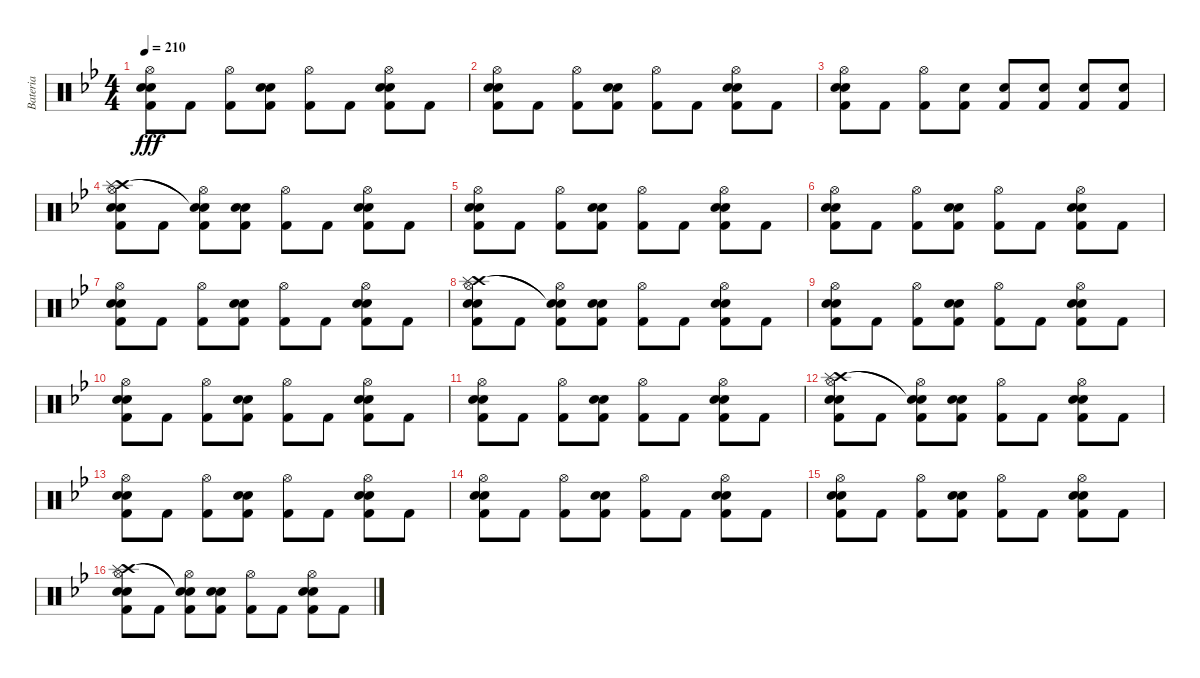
\track ("Bateria" "Bateria") {instrument percussion}
\staff {score}
\articulation defaults
\ts (4 4)
\tempo 210
\clef neutral
\ks gminor
("Hi-Hat (open)" "Snare (hit) 2" "Kick (hit) 2" "Electric Snare (hit)").8{dy fff} "Kick (hit) 2".8 ("Hi-Hat (open)" "Kick (hit) 2").8 ("Snare (hit) 2" "Kick (hit) 2" "Electric Snare (hit)").8 ("Hi-Hat (open)" "Kick (hit) 2").8 "Kick (hit) 2".8 ("Hi-Hat (open)" "Snare (hit) 2" "Kick (hit) 2" "Electric Snare (hit)").8 "Kick (hit) 2".8 |
("Hi-Hat (open)" "Snare (hit) 2" "Kick (hit) 2" "Electric Snare (hit)").8 "Kick (hit) 2".8 ("Hi-Hat (open)" "Kick (hit) 2").8 ("Snare (hit) 2" "Kick (hit) 2" "Electric Snare (hit)").8 ("Hi-Hat (open)" "Kick (hit) 2").8 "Kick (hit) 2".8 ("Hi-Hat (open)" "Snare (hit) 2" "Kick (hit) 2" "Electric Snare (hit)").8 "Kick (hit) 2".8 |
("Hi-Hat (open)" "Snare (hit) 2" "Kick (hit) 2" "Electric Snare (hit)").8 "Kick (hit) 2".8 ("Hi-Hat (open)" "Kick (hit) 2").8 ("Snare (hit) 2" "Kick (hit) 2").8 ("Snare (hit) 2" "Kick (hit) 2").8 ("Snare (hit) 2" "Kick (hit) 2").8 ("Snare (hit) 2" "Kick (hit) 2").8 ("Snare (hit) 2" "Kick (hit) 2").8 |
("Hi-Hat (open)" "Crash high (hit)" "Splash (hit)" "Snare (hit) 2" "Electric Snare (hit)" "Kick (hit) 2").8 "Kick (hit) 2".8 ("Hi-Hat (open)" "Snare (hit)"{t} "Snare (hit)"{t} "Kick (hit) 2").8 ("Snare (hit) 2" "Electric Snare (hit)" "Kick (hit) 2").8 ("Hi-Hat (open)" "Kick (hit) 2").8 "Kick (hit) 2".8 ("Hi-Hat (open)" "Snare (hit) 2" "Electric Snare (hit)" "Kick (hit) 2").8 "Kick (hit) 2".8 |
("Hi-Hat (open)" "Snare (hit) 2" "Kick (hit) 2" "Electric Snare (hit)").8 "Kick (hit) 2".8 ("Hi-Hat (open)" "Kick (hit) 2").8 ("Snare (hit) 2" "Kick (hit) 2" "Electric Snare (hit)").8 ("Hi-Hat (open)" "Kick (hit) 2").8 "Kick (hit) 2".8 ("Hi-Hat (open)" "Snare (hit) 2" "Kick (hit) 2" "Electric Snare (hit)").8 "Kick (hit) 2".8 |
("Hi-Hat (open)" "Snare (hit) 2" "Kick (hit) 2" "Electric Snare (hit)").8 "Kick (hit) 2".8 ("Hi-Hat (open)" "Kick (hit) 2").8 ("Snare (hit) 2" "Kick (hit) 2" "Electric Snare (hit)").8 ("Hi-Hat (open)" "Kick (hit) 2").8 "Kick (hit) 2".8 ("Hi-Hat (open)" "Snare (hit) 2" "Kick (hit) 2" "Electric Snare (hit)").8 "Kick (hit) 2".8 |
("Hi-Hat (open)" "Snare (hit) 2" "Kick (hit) 2" "Electric Snare (hit)").8 "Kick (hit) 2".8 ("Hi-Hat (open)" "Kick (hit) 2").8 ("Snare (hit) 2" "Kick (hit) 2" "Electric Snare (hit)").8 ("Hi-Hat (open)" "Kick (hit) 2").8 "Kick (hit) 2".8 ("Hi-Hat (open)" "Snare (hit) 2" "Kick (hit) 2" "Electric Snare (hit)").8 "Kick (hit) 2".8 |
("Hi-Hat (open)" "Crash high (hit)" "Splash (hit)" "Snare (hit) 2" "Kick (hit) 2" "Electric Snare (hit)").8 "Kick (hit) 2".8 ("Hi-Hat (open)" "Snare (hit)"{t} "Snare (hit)"{t} "Kick (hit) 2").8 ("Snare (hit) 2" "Kick (hit) 2" "Electric Snare (hit)").8 ("Hi-Hat (open)" "Kick (hit) 2").8 "Kick (hit) 2".8 ("Hi-Hat (open)" "Snare (hit) 2" "Kick (hit) 2" "Electric Snare (hit)").8 "Kick (hit) 2".8 |
("Hi-Hat (open)" "Snare (hit) 2" "Kick (hit) 2" "Electric Snare (hit)").8 "Kick (hit) 2".8 ("Hi-Hat (open)" "Kick (hit) 2").8 ("Snare (hit) 2" "Kick (hit) 2" "Electric Snare (hit)").8 ("Hi-Hat (open)" "Kick (hit) 2").8 "Kick (hit) 2".8 ("Hi-Hat (open)" "Snare (hit) 2" "Kick (hit) 2" "Electric Snare (hit)").8 "Kick (hit) 2".8 |
("Hi-Hat (open)" "Snare (hit) 2" "Kick (hit) 2" "Electric Snare (hit)").8 "Kick (hit) 2".8 ("Hi-Hat (open)" "Kick (hit) 2").8 ("Snare (hit) 2" "Kick (hit) 2" "Electric Snare (hit)").8 ("Hi-Hat (open)" "Kick (hit) 2").8 "Kick (hit) 2".8 ("Hi-Hat (open)" "Snare (hit) 2" "Kick (hit) 2" "Electric Snare (hit)").8 "Kick (hit) 2".8 |
("Hi-Hat (open)" "Snare (hit) 2" "Kick (hit) 2" "Electric Snare (hit)").8 "Kick (hit) 2".8 ("Hi-Hat (open)" "Kick (hit) 2").8 ("Snare (hit) 2" "Kick (hit) 2" "Electric Snare (hit)").8 ("Hi-Hat (open)" "Kick (hit) 2").8 "Kick (hit) 2".8 ("Hi-Hat (open)" "Snare (hit) 2" "Kick (hit) 2" "Electric Snare (hit)").8 "Kick (hit) 2".8 |
("Hi-Hat (open)" "Crash high (hit)" "Splash (hit)" "Snare (hit) 2" "Kick (hit) 2" "Electric Snare (hit)").8 "Kick (hit) 2".8 ("Hi-Hat (open)" "Snare (hit)"{t} "Snare (hit)"{t} "Kick (hit) 2").8 ("Snare (hit) 2" "Kick (hit) 2" "Electric Snare (hit)").8 ("Hi-Hat (open)" "Kick (hit) 2").8 "Kick (hit) 2".8 ("Hi-Hat (open)" "Snare (hit) 2" "Kick (hit) 2" "Electric Snare (hit)").8 "Kick (hit) 2".8 |
("Hi-Hat (open)" "Snare (hit) 2" "Kick (hit) 2" "Electric Snare (hit)").8 "Kick (hit) 2".8 ("Hi-Hat (open)" "Kick (hit) 2").8 ("Snare (hit) 2" "Kick (hit) 2" "Electric Snare (hit)").8 ("Hi-Hat (open)" "Kick (hit) 2").8 "Kick (hit) 2".8 ("Hi-Hat (open)" "Snare (hit) 2" "Kick (hit) 2" "Electric Snare (hit)").8 "Kick (hit) 2".8 |
("Hi-Hat (open)" "Snare (hit) 2" "Kick (hit) 2" "Electric Snare (hit)").8 "Kick (hit) 2".8 ("Hi-Hat (open)" "Kick (hit) 2").8 ("Snare (hit) 2" "Kick (hit) 2" "Electric Snare (hit)").8 ("Hi-Hat (open)" "Kick (hit) 2").8 "Kick (hit) 2".8 ("Hi-Hat (open)" "Snare (hit) 2" "Kick (hit) 2" "Electric Snare (hit)").8 "Kick (hit) 2".8 |
("Hi-Hat (open)" "Snare (hit) 2" "Kick (hit) 2" "Electric Snare (hit)").8 "Kick (hit) 2".8 ("Hi-Hat (open)" "Kick (hit) 2").8 ("Snare (hit) 2" "Kick (hit) 2" "Electric Snare (hit)").8 ("Hi-Hat (open)" "Kick (hit) 2").8 "Kick (hit) 2".8 ("Hi-Hat (open)" "Snare (hit) 2" "Kick (hit) 2" "Electric Snare (hit)").8 "Kick (hit) 2".8 |
("Hi-Hat (open)" "Crash high (hit)" "Splash (hit)" "Snare (hit) 2" "Kick (hit) 2" "Electric Snare (hit)").8 "Kick (hit) 2".8 ("Hi-Hat (open)" "Snare (hit)"{t} "Snare (hit)"{t} "Kick (hit) 2").8 ("Snare (hit) 2" "Kick (hit) 2" "Electric Snare (hit)").8 ("Hi-Hat (open)" "Kick (hit) 2").8 "Kick (hit) 2".8 ("Hi-Hat (open)" "Snare (hit) 2" "Kick (hit) 2" "Electric Snare (hit)").8 "Kick (hit) 2".8
